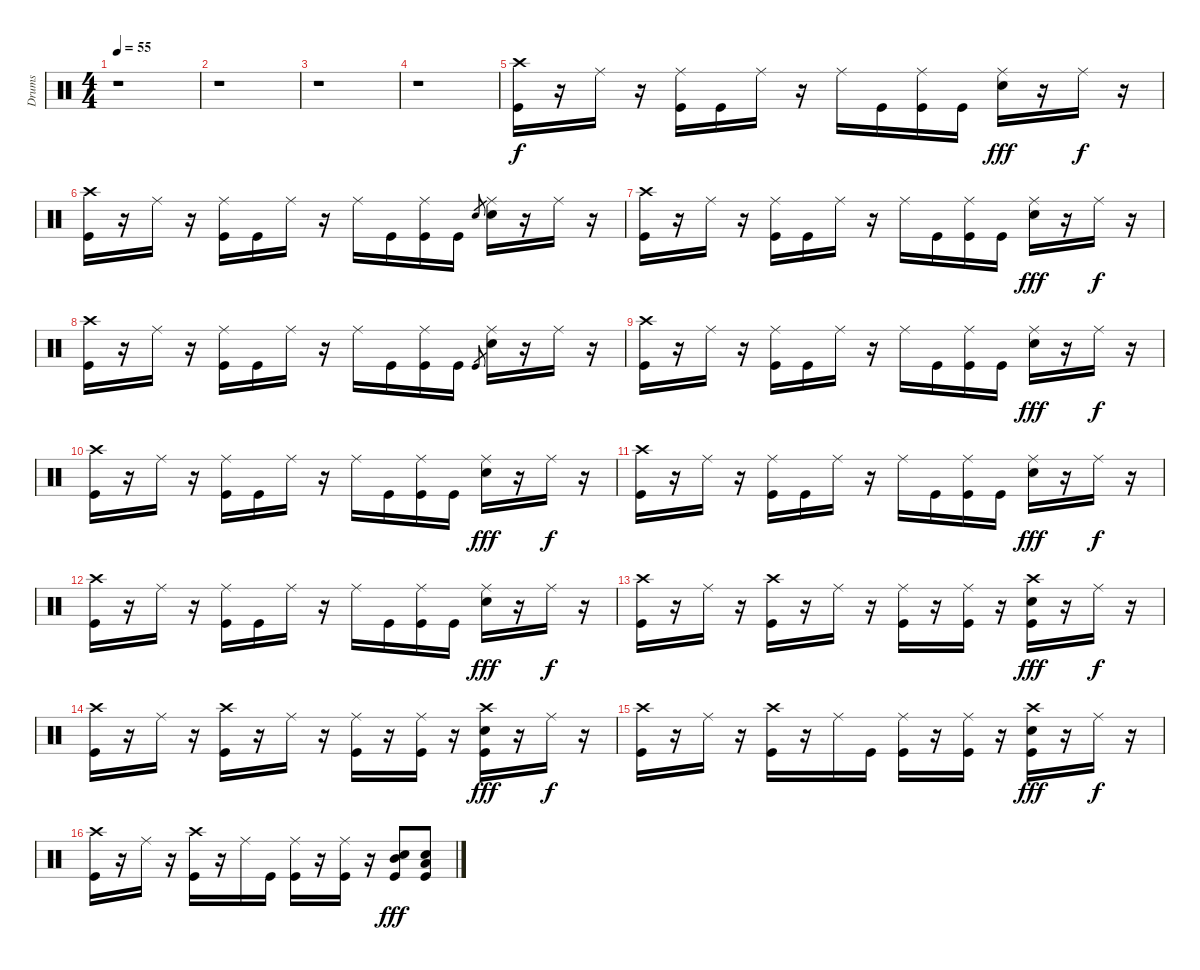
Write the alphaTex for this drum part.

\track ("Drums" "Drums") {instrument percussion}
\staff {score}
\articulation defaults
\ts (4 4)
\tempo 55
\clef neutral
\ks c
r.1{dy f} |
r.1 |
r.1 |
r.1 |
("Crash high (hit)" "Kick (hit)").16 r.16 "Ride (middle)".16 r.16 ("Ride (middle)" "Kick (hit)").16 "Kick (hit)".16 "Ride (middle)".16 r.16 "Ride (middle)".16 "Kick (hit)".16 ("Ride (middle)" "Kick (hit)").16 "Kick (hit)".16 ("Ride (middle)" "Snare (hit) 2").16{dy fff} r.16 "Ride (middle)".16{dy f} r.16 |
("Crash high (hit)" "Kick (hit)").16 r.16 "Ride (middle)".16 r.16 ("Ride (middle)" "Kick (hit)").16 "Kick (hit)".16 "Ride (middle)".16 r.16 "Ride (middle)".16 "Kick (hit)".16 ("Ride (middle)" "Kick (hit)").16 "Kick (hit)".16 "Snare (hit) 2".8{gr} ("Ride (middle)" "Snare (hit) 2").16 r.16 "Ride (middle)".16 r.16 |
("Crash high (hit)" "Kick (hit)").16 r.16 "Ride (middle)".16 r.16 ("Ride (middle)" "Kick (hit)").16 "Kick (hit)".16 "Ride (middle)".16 r.16 "Ride (middle)".16 "Kick (hit)".16 ("Ride (middle)" "Kick (hit)").16 "Kick (hit)".16 ("Ride (middle)" "Snare (hit) 2").16{dy fff} r.16 "Ride (middle)".16{dy f} r.16 |
("Crash high (hit)" "Kick (hit)").16 r.16 "Ride (middle)".16 r.16 ("Ride (middle)" "Kick (hit)").16 "Kick (hit)".16 "Ride (middle)".16 r.16 "Ride (middle)".16 "Kick (hit)".16 ("Ride (middle)" "Kick (hit)").16 "Kick (hit)".16 "Kick (hit)".8{gr} ("Ride (middle)" "Snare (hit) 2").16 r.16 "Ride (middle)".16 r.16 |
("Crash high (hit)" "Kick (hit)").16 r.16 "Ride (middle)".16 r.16 ("Ride (middle)" "Kick (hit)").16 "Kick (hit)".16 "Ride (middle)".16 r.16 "Ride (middle)".16 "Kick (hit)".16 ("Ride (middle)" "Kick (hit)").16 "Kick (hit)".16 ("Ride (middle)" "Snare (hit) 2").16{dy fff} r.16 "Ride (middle)".16{dy f} r.16 |
("Crash high (hit)" "Kick (hit)").16 r.16 "Ride (middle)".16 r.16 ("Ride (middle)" "Kick (hit)").16 "Kick (hit)".16 "Ride (middle)".16 r.16 "Ride (middle)".16 "Kick (hit)".16 ("Ride (middle)" "Kick (hit)").16 "Kick (hit)".16 ("Ride (middle)" "Snare (hit) 2").16{dy fff} r.16 "Ride (middle)".16{dy f} r.16 |
("Crash high (hit)" "Kick (hit)").16 r.16 "Ride (middle)".16 r.16 ("Ride (middle)" "Kick (hit)").16 "Kick (hit)".16 "Ride (middle)".16 r.16 "Ride (middle)".16 "Kick (hit)".16 ("Ride (middle)" "Kick (hit)").16 "Kick (hit)".16 ("Ride (middle)" "Snare (hit) 2").16{dy fff} r.16 "Ride (middle)".16{dy f} r.16 |
("Crash high (hit)" "Kick (hit)").16 r.16 "Ride (middle)".16 r.16 ("Ride (middle)" "Kick (hit)").16 "Kick (hit)".16 "Ride (middle)".16 r.16 "Ride (middle)".16 "Kick (hit)".16 ("Ride (middle)" "Kick (hit)").16 "Kick (hit)".16 ("Ride (middle)" "Snare (hit) 2").16{dy fff} r.16 "Ride (middle)".16{dy f} r.16 |
("Crash high (hit)" "Kick (hit)").16 r.16 "Ride (middle)".16 r.16 ("Crash high (hit)" "Kick (hit)").16 r.16 "Ride (middle)".16 r.16 ("Ride (middle)" "Kick (hit)").16 r.16 ("Ride (middle)" "Kick (hit)").16 r.16 ("Crash high (hit)" "Snare (hit) 2" "Kick (hit)").16{dy fff} r.16 "Ride (middle)".16{dy f} r.16 |
("Crash high (hit)" "Kick (hit)").16 r.16 "Ride (middle)".16 r.16 ("Crash high (hit)" "Kick (hit)").16 r.16 "Ride (middle)".16 r.16 ("Ride (middle)" "Kick (hit)").16 r.16 ("Ride (middle)" "Kick (hit)").16 r.16 ("Crash high (hit)" "Snare (hit) 2" "Kick (hit)").16{dy fff} r.16 "Ride (middle)".16{dy f} r.16 |
("Crash high (hit)" "Kick (hit)").16 r.16 "Ride (middle)".16 r.16 ("Crash high (hit)" "Kick (hit)").16 r.16 "Ride (middle)".16 "Kick (hit)".16 ("Ride (middle)" "Kick (hit)").16 r.16 ("Ride (middle)" "Kick (hit)").16 r.16 ("Crash high (hit)" "Snare (hit) 2" "Kick (hit)").16{dy fff} r.16 "Ride (middle)".16{dy f} r.16 |
("Crash high (hit)" "Kick (hit)").16 r.16 "Ride (middle)".16 r.16 ("Crash high (hit)" "Kick (hit)").16 r.16 "Ride (middle)".16 "Kick (hit)".16 ("Ride (middle)" "Kick (hit)").16 r.16 ("Ride (middle)" "Kick (hit)").16 r.16 ("Snare (hit) 2" "Mid Tom (hit)" "Kick (hit)").8{dy fff} ("Snare (hit) 2" "Low Tom (hit)" "Kick (hit)").8
